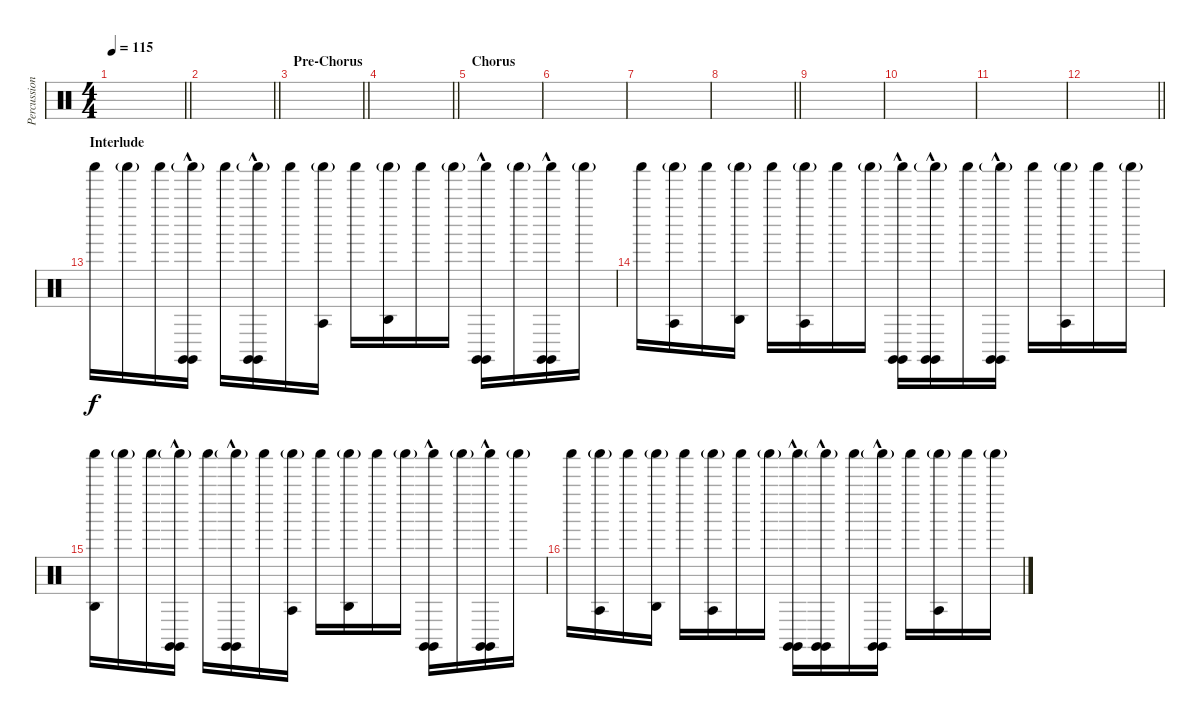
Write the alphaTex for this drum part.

\track ("Percussion 1" "Percussion") {instrument percussion}
\staff {score}
\articulation defaults
\ts (4 4)
\tempo 115
\clef neutral
\barLineRight lightlight
\ks c
|
\barLineRight lightlight
|
\section ("" "Pre-Chorus")
\barLineRight lightlight
|
\barLineRight lightlight
|
\section ("" "Chorus")
|
|
|
\barLineRight lightlight
|
|
|
|
\barLineRight lightlight
|
\section ("" "Interlude")
"Shaker (hit)".16 "Shaker (hit)"{g}.16 "Shaker (hit)".16 ("Shaker (hit)"{g} "Claves (hit)"{hac} "Claves (hit)"{hac}).16 "Shaker (hit)".16 ("Shaker (hit)"{g} "Claves (hit)"{hac} "Claves (hit)"{hac}).16 "Shaker (hit)".16 ("Shaker (hit)"{g} "Agogo tow (hit)").16 "Shaker (hit)".16 ("Shaker (hit)"{g} "Agogo high (hit)").16 "Shaker (hit)".16 "Shaker (hit)"{g}.16 ("Shaker (hit)" "Claves (hit)"{hac} "Claves (hit)"{hac}).16 "Shaker (hit)"{g}.16 ("Shaker (hit)" "Claves (hit)"{hac} "Claves (hit)"{hac}).16 "Shaker (hit)"{g}.16 |
"Shaker (hit)".16 ("Shaker (hit)"{g} "Agogo tow (hit)").16 "Shaker (hit)".16 ("Shaker (hit)"{g} "Agogo high (hit)").16 "Shaker (hit)".16 ("Shaker (hit)"{g} "Agogo tow (hit)").16 "Shaker (hit)".16 "Shaker (hit)"{g}.16 ("Shaker (hit)" "Claves (hit)"{hac} "Claves (hit)"{hac}).16 ("Shaker (hit)"{g} "Claves (hit)"{hac} "Claves (hit)"{hac}).16 "Shaker (hit)".16 ("Shaker (hit)"{g} "Claves (hit)"{hac} "Claves (hit)"{hac}).16 "Shaker (hit)".16 ("Shaker (hit)"{g} "Agogo tow (hit)").16 "Shaker (hit)".16 "Shaker (hit)"{g}.16 |
("Shaker (hit)" "Agogo high (hit)").16 "Shaker (hit)"{g}.16 "Shaker (hit)".16 ("Shaker (hit)"{g} "Claves (hit)"{hac} "Claves (hit)"{hac}).16 "Shaker (hit)".16 ("Shaker (hit)"{g} "Claves (hit)"{hac} "Claves (hit)"{hac}).16 "Shaker (hit)".16 ("Shaker (hit)"{g} "Agogo tow (hit)").16 "Shaker (hit)".16 ("Shaker (hit)"{g} "Agogo high (hit)").16 "Shaker (hit)".16 "Shaker (hit)"{g}.16 ("Shaker (hit)" "Claves (hit)"{hac} "Claves (hit)"{hac}).16 "Shaker (hit)"{g}.16 ("Shaker (hit)" "Claves (hit)"{hac} "Claves (hit)"{hac}).16 "Shaker (hit)"{g}.16 |
"Shaker (hit)".16 ("Shaker (hit)"{g} "Agogo tow (hit)").16 "Shaker (hit)".16 ("Shaker (hit)"{g} "Agogo high (hit)").16 "Shaker (hit)".16 ("Shaker (hit)"{g} "Agogo tow (hit)").16 "Shaker (hit)".16 "Shaker (hit)"{g}.16 ("Shaker (hit)" "Claves (hit)"{hac} "Claves (hit)"{hac}).16 ("Shaker (hit)"{g} "Claves (hit)"{hac} "Claves (hit)"{hac}).16 "Shaker (hit)".16 ("Shaker (hit)"{g} "Claves (hit)"{hac} "Claves (hit)"{hac}).16 "Shaker (hit)".16 ("Shaker (hit)"{g} "Agogo tow (hit)").16 "Shaker (hit)".16 "Shaker (hit)"{g}.16
